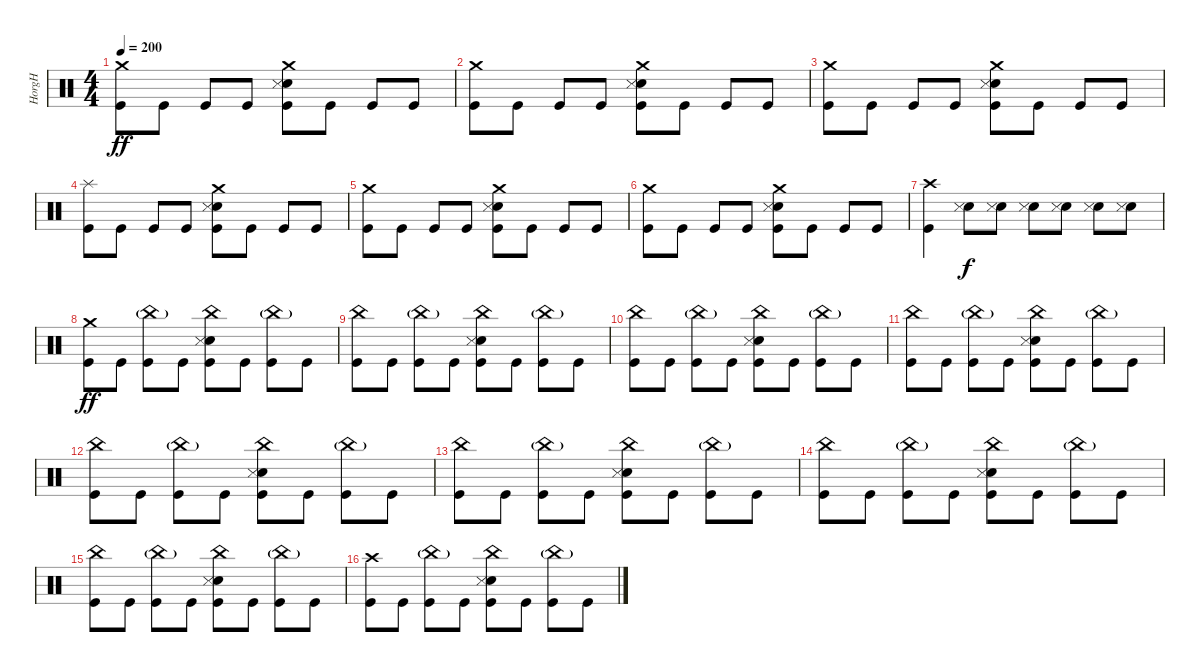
\track ("HorgH" "HorgH") {instrument percussion}
\staff {score}
\articulation defaults
\ts (4 4)
\tempo 200
\clef neutral
\ks c
("Crash medium (hit)" "Kick (hit)").8{dy ff} "Kick (hit)".8 "Kick (hit)".8 "Kick (hit)".8 ("Crash medium (hit)" "Electric Snare (hit)" "Snare (side stick) 3" "Kick (hit)").8 "Kick (hit)".8 "Kick (hit)".8 "Kick (hit)".8 |
("Crash medium (hit)" "Kick (hit)").8 "Kick (hit)".8 "Kick (hit)".8 "Kick (hit)".8 ("Crash medium (hit)" "Electric Snare (hit)" "Snare (side stick) 3" "Kick (hit)").8 "Kick (hit)".8 "Kick (hit)".8 "Kick (hit)".8 |
("Crash medium (hit)" "Kick (hit)").8 "Kick (hit)".8 "Kick (hit)".8 "Kick (hit)".8 ("Crash medium (hit)" "Electric Snare (hit)" "Snare (side stick) 3" "Kick (hit)").8 "Kick (hit)".8 "Kick (hit)".8 "Kick (hit)".8 |
("Splash (hit)" "Kick (hit)").8 "Kick (hit)".8 "Kick (hit)".8 "Kick (hit)".8 ("Crash medium (hit)" "Electric Snare (hit)" "Snare (side stick) 3" "Kick (hit)").8 "Kick (hit)".8 "Kick (hit)".8 "Kick (hit)".8 |
("Crash medium (hit)" "Kick (hit)").8 "Kick (hit)".8 "Kick (hit)".8 "Kick (hit)".8 ("Crash medium (hit)" "Electric Snare (hit)" "Snare (side stick) 3" "Kick (hit)").8 "Kick (hit)".8 "Kick (hit)".8 "Kick (hit)".8 |
("Crash medium (hit)" "Kick (hit)").8 "Kick (hit)".8 "Kick (hit)".8 "Kick (hit)".8 ("Crash medium (hit)" "Electric Snare (hit)" "Snare (side stick) 3" "Kick (hit)").8 "Kick (hit)".8 "Kick (hit)".8 "Kick (hit)".8 |
("Crash high (hit)" "Kick (hit)").4 ("Electric Snare (hit)" "Snare (side stick) 3").8{dy f} ("Electric Snare (hit)" "Snare (side stick) 3").8 ("Electric Snare (hit)" "Snare (side stick) 3").8 ("Electric Snare (hit)" "Snare (side stick) 3").8 ("Electric Snare (hit)" "Snare (side stick) 3").8 ("Electric Snare (hit)" "Snare (side stick) 3").8 |
\section ("" "")
("Crash medium (hit)" "Kick (hit)").8{dy ff} "Kick (hit)".8 ("China (hit)"{g} "Kick (hit)").8 "Kick (hit)".8 ("China (hit)" "Electric Snare (hit)" "Snare (side stick) 3" "Kick (hit)").8 "Kick (hit)".8 ("China (hit)"{g} "Kick (hit)").8 "Kick (hit)".8 |
("China (hit)" "Kick (hit)").8 "Kick (hit)".8 ("China (hit)"{g} "Kick (hit)").8 "Kick (hit)".8 ("China (hit)" "Electric Snare (hit)" "Snare (side stick) 3" "Kick (hit)").8 "Kick (hit)".8 ("China (hit)"{g} "Kick (hit)").8 "Kick (hit)".8 |
("China (hit)" "Kick (hit)").8 "Kick (hit)".8 ("China (hit)"{g} "Kick (hit)").8 "Kick (hit)".8 ("China (hit)" "Electric Snare (hit)" "Snare (side stick) 3" "Kick (hit)").8 "Kick (hit)".8 ("China (hit)"{g} "Kick (hit)").8 "Kick (hit)".8 |
("China (hit)" "Kick (hit)").8 "Kick (hit)".8 ("China (hit)"{g} "Kick (hit)").8 "Kick (hit)".8 ("China (hit)" "Electric Snare (hit)" "Snare (side stick) 3" "Kick (hit)").8 "Kick (hit)".8 ("China (hit)"{g} "Kick (hit)").8 "Kick (hit)".8 |
("China (hit)" "Kick (hit)").8 "Kick (hit)".8 ("China (hit)"{g} "Kick (hit)").8 "Kick (hit)".8 ("China (hit)" "Electric Snare (hit)" "Snare (side stick) 3" "Kick (hit)").8 "Kick (hit)".8 ("China (hit)"{g} "Kick (hit)").8 "Kick (hit)".8 |
("China (hit)" "Kick (hit)").8 "Kick (hit)".8 ("China (hit)"{g} "Kick (hit)").8 "Kick (hit)".8 ("China (hit)" "Electric Snare (hit)" "Snare (side stick) 3" "Kick (hit)").8 "Kick (hit)".8 ("China (hit)"{g} "Kick (hit)").8 "Kick (hit)".8 |
("China (hit)" "Kick (hit)").8 "Kick (hit)".8 ("China (hit)"{g} "Kick (hit)").8 "Kick (hit)".8 ("China (hit)" "Electric Snare (hit)" "Snare (side stick) 3" "Kick (hit)").8 "Kick (hit)".8 ("China (hit)"{g} "Kick (hit)").8 "Kick (hit)".8 |
("China (hit)" "Kick (hit)").8 "Kick (hit)".8 ("China (hit)"{g} "Kick (hit)").8 "Kick (hit)".8 ("China (hit)" "Electric Snare (hit)" "Snare (side stick) 3" "Kick (hit)").8 "Kick (hit)".8 ("China (hit)"{g} "Kick (hit)").8 "Kick (hit)".8 |
("Crash high (hit)" "Kick (hit)").8 "Kick (hit)".8 ("China (hit)"{g} "Kick (hit)").8 "Kick (hit)".8 ("China (hit)" "Electric Snare (hit)" "Snare (side stick) 3" "Kick (hit)").8 "Kick (hit)".8 ("China (hit)"{g} "Kick (hit)").8 "Kick (hit)".8
